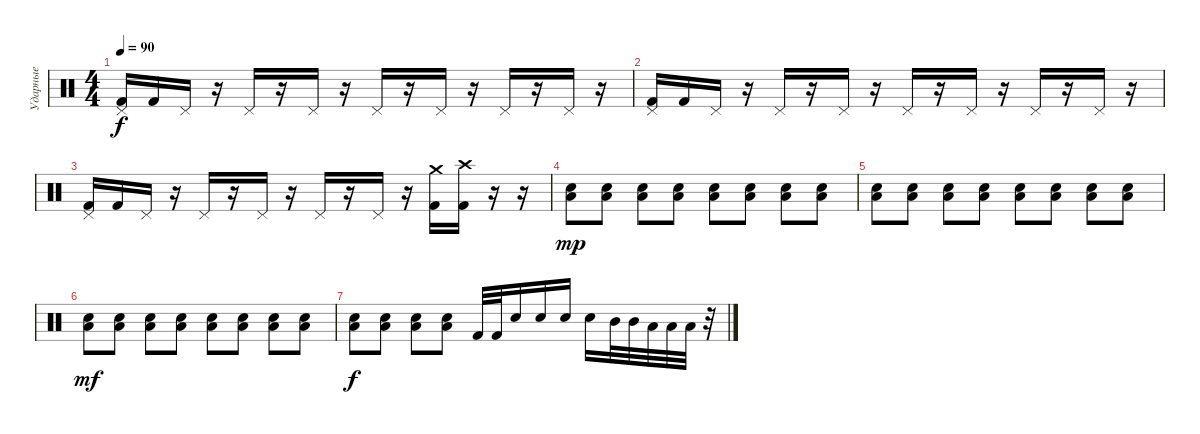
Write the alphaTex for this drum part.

\track ("Ударные" "Ударные") {instrument percussion}
\staff {score}
\articulation defaults
\ts (4 4)
\tempo 90
\clef neutral
\ks c
("Pedal Hi-Hat (hit)" "Kick (hit) 2").16{dy f} "Kick (hit) 2".16 "Pedal Hi-Hat (hit)".16 r.16 "Pedal Hi-Hat (hit)".16 r.16 "Pedal Hi-Hat (hit)".16 r.16 "Pedal Hi-Hat (hit)".16 r.16 "Pedal Hi-Hat (hit)".16 r.16 "Pedal Hi-Hat (hit)".16 r.16 "Pedal Hi-Hat (hit)".16 r.16 |
("Pedal Hi-Hat (hit)" "Kick (hit) 2").16 "Kick (hit) 2".16 "Pedal Hi-Hat (hit)".16 r.16 "Pedal Hi-Hat (hit)".16 r.16 "Pedal Hi-Hat (hit)".16 r.16 "Pedal Hi-Hat (hit)".16 r.16 "Pedal Hi-Hat (hit)".16 r.16 "Pedal Hi-Hat (hit)".16 r.16 "Pedal Hi-Hat (hit)".16 r.16 |
("Pedal Hi-Hat (hit)" "Kick (hit) 2").16 "Kick (hit) 2".16 "Pedal Hi-Hat (hit)".16 r.16 "Pedal Hi-Hat (hit)".16 r.16 "Pedal Hi-Hat (hit)".16 r.16 "Pedal Hi-Hat (hit)".16 r.16 "Pedal Hi-Hat (hit)".16 r.16 ("Crash medium (hit)" "Kick (hit) 2").16 ("Crash high (hit)" "Kick (hit) 2").16 r.16 r.16 |
("Low Floor Tom (hit)" "Electric Snare (hit)").8{dy mp} ("Low Floor Tom (hit)" "Electric Snare (hit)").8 ("Low Floor Tom (hit)" "Electric Snare (hit)").8 ("Low Floor Tom (hit)" "Electric Snare (hit)").8 ("Low Floor Tom (hit)" "Electric Snare (hit)").8 ("Low Floor Tom (hit)" "Electric Snare (hit)").8 ("Low Floor Tom (hit)" "Electric Snare (hit)").8 ("Low Floor Tom (hit)" "Electric Snare (hit)").8 |
("Low Floor Tom (hit)" "Electric Snare (hit)").8 ("Low Floor Tom (hit)" "Electric Snare (hit)").8 ("Low Floor Tom (hit)" "Electric Snare (hit)").8 ("Low Floor Tom (hit)" "Electric Snare (hit)").8 ("Low Floor Tom (hit)" "Electric Snare (hit)").8 ("Low Floor Tom (hit)" "Electric Snare (hit)").8 ("Low Floor Tom (hit)" "Electric Snare (hit)").8 ("Low Floor Tom (hit)" "Electric Snare (hit)").8 |
("Low Floor Tom (hit)" "Electric Snare (hit)").8{dy mf} ("Low Floor Tom (hit)" "Electric Snare (hit)").8 ("Low Floor Tom (hit)" "Electric Snare (hit)").8 ("Low Floor Tom (hit)" "Electric Snare (hit)").8 ("Low Floor Tom (hit)" "Electric Snare (hit)").8 ("Low Floor Tom (hit)" "Electric Snare (hit)").8 ("Low Floor Tom (hit)" "Electric Snare (hit)").8 ("Low Floor Tom (hit)" "Electric Snare (hit)").8 |
("Low Floor Tom (hit)" "Electric Snare (hit)").8{dy f} ("Low Floor Tom (hit)" "Electric Snare (hit)").8 ("Low Floor Tom (hit)" "Electric Snare (hit)").8 ("Low Floor Tom (hit)" "Electric Snare (hit)").8 "Kick (hit) 2".32 "Kick (hit) 2".32 "Electric Snare (hit)".16 "Electric Snare (hit)".16 "Electric Snare (hit)".16 "Electric Snare (hit)".16 "Mid Tom (hit)".32 "Mid Tom (hit)".32 "Low Tom (hit)".32 "Low Tom (hit)".32 "Low Floor Tom (hit)".32 r.32
